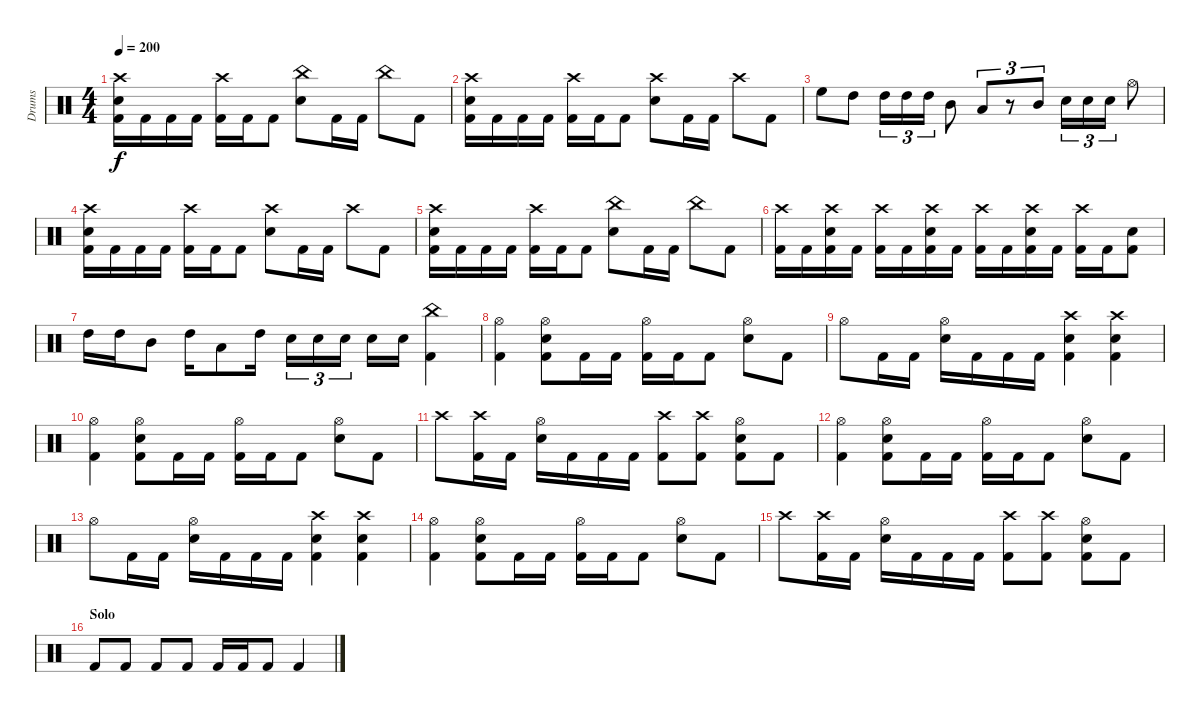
\track ("Drums" "Drums") {instrument percussion}
\staff {score}
\articulation defaults
\ts (4 4)
\tempo 200
\clef neutral
\ks c
("Crash high (hit)" "Electric Snare (hit)" "Kick (hit) 2").16{dy f} "Kick (hit) 2".16 "Kick (hit) 2".16 "Kick (hit) 2".16 ("Crash high (hit)" "Kick (hit) 2").16 "Kick (hit) 2".16 "Kick (hit) 2".8 ("China (hit)" "Electric Snare (hit)").8 "Kick (hit) 2".16 "Kick (hit) 2".16 "China (hit)".8 "Kick (hit) 2".8 |
("Crash high (hit)" "Electric Snare (hit)" "Kick (hit) 2").16 "Kick (hit) 2".16 "Kick (hit) 2".16 "Kick (hit) 2".16 ("Crash high (hit)" "Kick (hit) 2").16 "Kick (hit) 2".16 "Kick (hit) 2".8 ("Crash high (hit)" "Electric Snare (hit)").8 "Kick (hit) 2".16 "Kick (hit) 2".16 "Crash high (hit)".8 "Kick (hit) 2".8 |
"High Floor Tom (hit)".8 "High Tom (hit)".8 "High Tom (hit)".16{tu (3 2)} "High Tom (hit)".16{tu (3 2)} "High Tom (hit)".16{tu (3 2)} "Mid Tom (hit)".8 "Low Tom (hit)".8{tu (3 2)} r.8{tu (3 2)} "Mid Tom (hit)".8{tu (3 2)} "Electric Snare (hit)".16{tu (3 2)} "Electric Snare (hit)".16{tu (3 2)} "Electric Snare (hit)".16{tu (3 2)} "Hi-Hat (open)".8 |
("Crash high (hit)" "Electric Snare (hit)" "Kick (hit) 2").16 "Kick (hit) 2".16 "Kick (hit) 2".16 "Kick (hit) 2".16 ("Crash high (hit)" "Kick (hit) 2").16 "Kick (hit) 2".16 "Kick (hit) 2".8 ("Crash high (hit)" "Electric Snare (hit)").8 "Kick (hit) 2".16 "Kick (hit) 2".16 "Crash high (hit)".8 "Kick (hit) 2".8 |
("Crash high (hit)" "Electric Snare (hit)" "Kick (hit) 2").16 "Kick (hit) 2".16 "Kick (hit) 2".16 "Kick (hit) 2".16 ("Crash high (hit)" "Kick (hit) 2").16 "Kick (hit) 2".16 "Kick (hit) 2".8 ("China (hit)" "Electric Snare (hit)").8 "Kick (hit) 2".16 "Kick (hit) 2".16 "China (hit)".8 "Kick (hit) 2".8 |
("Crash high (hit)" "Kick (hit) 2").16 "Kick (hit) 2".16 ("Crash high (hit)" "Electric Snare (hit)" "Kick (hit) 2").16 "Kick (hit) 2".16 ("Crash high (hit)" "Kick (hit) 2").16 "Kick (hit) 2".16 ("Crash high (hit)" "Electric Snare (hit)" "Kick (hit) 2").16 "Kick (hit) 2".16 ("Crash high (hit)" "Kick (hit) 2").16 "Kick (hit) 2".16 ("Crash high (hit)" "Electric Snare (hit)" "Kick (hit) 2").16 "Kick (hit) 2".16 ("Crash high (hit)" "Kick (hit) 2").16 "Kick (hit) 2".16 ("Electric Snare (hit)" "Kick (hit) 2").8 |
"High Tom (hit)".16 "High Tom (hit)".16 "Mid Tom (hit)".8 "High Tom (hit)".16 "Low Tom (hit)".8 "High Tom (hit)".16 "Electric Snare (hit)".16{tu (3 2)} "Electric Snare (hit)".16{tu (3 2)} "Electric Snare (hit)".16{tu (3 2)} "Electric Snare (hit)".16 "Electric Snare (hit)".16 ("China (hit)" "Kick (hit) 2").4 |
("Hi-Hat (open)" "Kick (hit) 2").4 ("Hi-Hat (open)" "Electric Snare (hit)" "Kick (hit) 2").8 "Kick (hit) 2".16 "Kick (hit) 2".16 ("Hi-Hat (open)" "Kick (hit) 2").16 "Kick (hit) 2".16 "Kick (hit) 2".8 ("Hi-Hat (open)" "Electric Snare (hit)").8 "Kick (hit) 2".8 |
"Hi-Hat (open)".8 "Kick (hit) 2".16 "Kick (hit) 2".16 ("Hi-Hat (open)" "Electric Snare (hit)").16 "Kick (hit) 2".16 "Kick (hit) 2".16 "Kick (hit) 2".16 ("Crash high (hit)" "Electric Snare (hit)" "Kick (hit) 2").4 ("Crash high (hit)" "Electric Snare (hit)" "Kick (hit) 2").4 |
("Hi-Hat (open)" "Kick (hit) 2").4 ("Hi-Hat (open)" "Electric Snare (hit)" "Kick (hit) 2").8 "Kick (hit) 2".16 "Kick (hit) 2".16 ("Hi-Hat (open)" "Kick (hit) 2").16 "Kick (hit) 2".16 "Kick (hit) 2".8 ("Hi-Hat (open)" "Electric Snare (hit)").8 "Kick (hit) 2".8 |
"Crash high (hit)".8 ("Crash high (hit)" "Kick (hit) 2").16 "Kick (hit) 2".16 ("Hi-Hat (open)" "Electric Snare (hit)").16 "Kick (hit) 2".16 "Kick (hit) 2".16 "Kick (hit) 2".16 ("Crash high (hit)" "Kick (hit) 2").8 ("Crash high (hit)" "Kick (hit) 2").8 ("Hi-Hat (open)" "Electric Snare (hit)" "Kick (hit) 2").8 "Kick (hit) 2".8 |
("Hi-Hat (open)" "Kick (hit) 2").4 ("Hi-Hat (open)" "Electric Snare (hit)" "Kick (hit) 2").8 "Kick (hit) 2".16 "Kick (hit) 2".16 ("Hi-Hat (open)" "Kick (hit) 2").16 "Kick (hit) 2".16 "Kick (hit) 2".8 ("Hi-Hat (open)" "Electric Snare (hit)").8 "Kick (hit) 2".8 |
"Hi-Hat (open)".8 "Kick (hit) 2".16 "Kick (hit) 2".16 ("Hi-Hat (open)" "Electric Snare (hit)").16 "Kick (hit) 2".16 "Kick (hit) 2".16 "Kick (hit) 2".16 ("Crash high (hit)" "Electric Snare (hit)" "Kick (hit) 2").4 ("Crash high (hit)" "Electric Snare (hit)" "Kick (hit) 2").4 |
("Hi-Hat (open)" "Kick (hit) 2").4 ("Hi-Hat (open)" "Electric Snare (hit)" "Kick (hit) 2").8 "Kick (hit) 2".16 "Kick (hit) 2".16 ("Hi-Hat (open)" "Kick (hit) 2").16 "Kick (hit) 2".16 "Kick (hit) 2".8 ("Hi-Hat (open)" "Electric Snare (hit)").8 "Kick (hit) 2".8 |
"Crash high (hit)".8 ("Crash high (hit)" "Kick (hit) 2").16 "Kick (hit) 2".16 ("Hi-Hat (open)" "Electric Snare (hit)").16 "Kick (hit) 2".16 "Kick (hit) 2".16 "Kick (hit) 2".16 ("Crash high (hit)" "Kick (hit) 2").8 ("Crash high (hit)" "Kick (hit) 2").8 ("Hi-Hat (open)" "Electric Snare (hit)" "Kick (hit) 2").8 "Kick (hit) 2".8 |
\section ("" "Solo")
"Kick (hit) 2".8 "Kick (hit) 2".8 "Kick (hit) 2".8 "Kick (hit) 2".8 "Kick (hit) 2".16 "Kick (hit) 2".16 "Kick (hit) 2".8 "Kick (hit) 2".4
